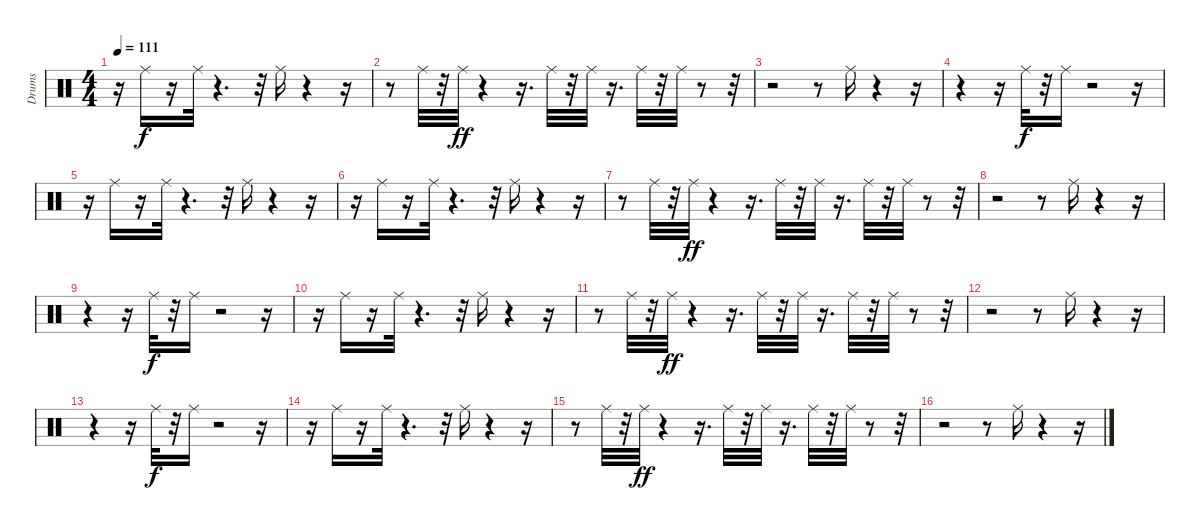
\track ("Drums" "Drums") {instrument percussion}
\staff {score}
\articulation defaults
\ts (4 4)
\tempo 111
\clef neutral
\ks c
r.16{dy f} "Ride (middle)".16 r.16 "Ride (middle)".32 r.4{d} r.32 "Ride (middle)".16 r.4 r.16 |
r.8 "Ride (middle)".32 r.32 "Ride (middle)".32{dy ff} r.4 r.16{d} "Ride (middle)".32 r.32 "Ride (middle)".32 r.16{d} "Ride (middle)".32 r.32 "Ride (middle)".32 r.8 r.32 |
r.2 r.8 "Ride (middle)".16 r.4 r.16 |
r.4 r.16 "Ride (middle)".32{dy f} r.32 "Ride (middle)".16 r.2 r.16 |
r.16 "Ride (middle)".16 r.16 "Ride (middle)".32 r.4{d} r.32 "Ride (middle)".16 r.4 r.16 |
r.16 "Ride (middle)".16 r.16 "Ride (middle)".32 r.4{d} r.32 "Ride (middle)".16 r.4 r.16 |
r.8 "Ride (middle)".32 r.32 "Ride (middle)".32{dy ff} r.4 r.16{d} "Ride (middle)".32 r.32 "Ride (middle)".32 r.16{d} "Ride (middle)".32 r.32 "Ride (middle)".32 r.8 r.32 |
r.2 r.8 "Ride (middle)".16 r.4 r.16 |
r.4 r.16 "Ride (middle)".32{dy f} r.32 "Ride (middle)".16 r.2 r.16 |
r.16 "Ride (middle)".16 r.16 "Ride (middle)".32 r.4{d} r.32 "Ride (middle)".16 r.4 r.16 |
r.8 "Ride (middle)".32 r.32 "Ride (middle)".32{dy ff} r.4 r.16{d} "Ride (middle)".32 r.32 "Ride (middle)".32 r.16{d} "Ride (middle)".32 r.32 "Ride (middle)".32 r.8 r.32 |
r.2 r.8 "Ride (middle)".16 r.4 r.16 |
r.4 r.16 "Ride (middle)".32{dy f} r.32 "Ride (middle)".16 r.2 r.16 |
r.16 "Ride (middle)".16 r.16 "Ride (middle)".32 r.4{d} r.32 "Ride (middle)".16 r.4 r.16 |
r.8 "Ride (middle)".32 r.32 "Ride (middle)".32{dy ff} r.4 r.16{d} "Ride (middle)".32 r.32 "Ride (middle)".32 r.16{d} "Ride (middle)".32 r.32 "Ride (middle)".32 r.8 r.32 |
r.2 r.8 "Ride (middle)".16 r.4 r.16
